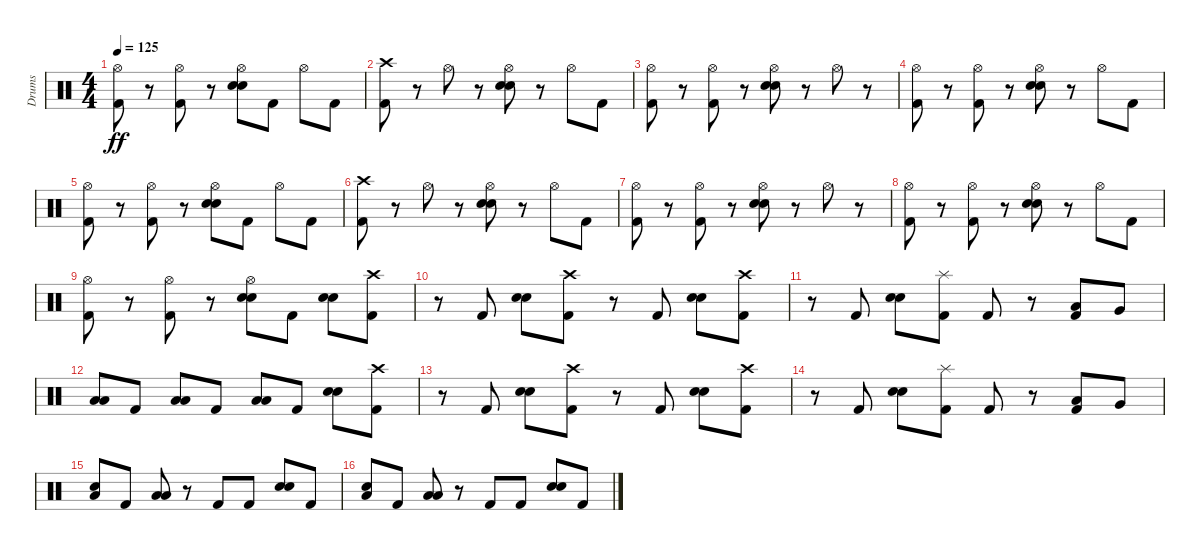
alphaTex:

\track ("Drums" "Drums") {instrument percussion}
\staff {score}
\articulation defaults
\ts (4 4)
\tempo 125
\clef neutral
\ks c
("Hi-Hat (open)" "Kick (hit) 2").8{dy ff} r.8 ("Hi-Hat (open)" "Kick (hit) 2").8 r.8 ("Hi-Hat (open)" "Electric Snare (hit)" "Electric Snare (hit)").8 "Kick (hit) 2".8 "Hi-Hat (open)".8 "Kick (hit) 2".8 |
("Crash high (hit)" "Kick (hit) 2").8 r.8 "Hi-Hat (open)".8 r.8 ("Hi-Hat (open)" "Electric Snare (hit)" "Electric Snare (hit)").8 r.8 "Hi-Hat (open)".8 "Kick (hit) 2".8 |
("Hi-Hat (open)" "Kick (hit) 2").8 r.8 ("Hi-Hat (open)" "Kick (hit) 2").8 r.8 ("Hi-Hat (open)" "Electric Snare (hit)" "Electric Snare (hit)").8 r.8 "Hi-Hat (open)".8 r.8 |
("Hi-Hat (open)" "Kick (hit) 2").8 r.8 ("Hi-Hat (open)" "Kick (hit) 2").8 r.8 ("Hi-Hat (open)" "Electric Snare (hit)" "Electric Snare (hit)").8 r.8 "Hi-Hat (open)".8 "Kick (hit) 2".8 |
("Hi-Hat (open)" "Kick (hit) 2").8 r.8 ("Hi-Hat (open)" "Kick (hit) 2").8 r.8 ("Hi-Hat (open)" "Electric Snare (hit)" "Electric Snare (hit)").8 "Kick (hit) 2".8 "Hi-Hat (open)".8 "Kick (hit) 2".8 |
("Crash high (hit)" "Kick (hit) 2").8 r.8 "Hi-Hat (open)".8 r.8 ("Hi-Hat (open)" "Electric Snare (hit)" "Electric Snare (hit)").8 r.8 "Hi-Hat (open)".8 "Kick (hit) 2".8 |
("Hi-Hat (open)" "Kick (hit) 2").8 r.8 ("Hi-Hat (open)" "Kick (hit) 2").8 r.8 ("Hi-Hat (open)" "Electric Snare (hit)" "Electric Snare (hit)").8 r.8 "Hi-Hat (open)".8 r.8 |
("Hi-Hat (open)" "Kick (hit) 2").8 r.8 ("Hi-Hat (open)" "Kick (hit) 2").8 r.8 ("Hi-Hat (open)" "Electric Snare (hit)" "Electric Snare (hit)").8 r.8 "Hi-Hat (open)".8 "Kick (hit) 2".8 |
("Hi-Hat (open)" "Kick (hit) 2").8 r.8 ("Hi-Hat (open)" "Kick (hit) 2").8 r.8 ("Hi-Hat (open)" "Electric Snare (hit)" "Electric Snare (hit)").8 "Kick (hit) 2".8 ("Electric Snare (hit)" "Electric Snare (hit)").8{bd 240} ("Crash high (hit)" "Kick (hit) 2").8 |
r.8 "Kick (hit) 2".8 ("Electric Snare (hit)" "Electric Snare (hit)").8{bd 240} ("Crash high (hit)" "Kick (hit) 2").8 r.8 "Kick (hit) 2".8 ("Electric Snare (hit)" "Electric Snare (hit)").8{bd 240} ("Crash high (hit)" "Kick (hit) 2").8 |
r.8 "Kick (hit) 2".8 ("Electric Snare (hit)" "Electric Snare (hit)").8{bd 240} ("Splash (hit)" "Kick (hit) 2").8 "Kick (hit) 2".8 r.8 ("Low Floor Tom (hit)" "Kick (hit) 2").8 "Very Low Tom (hit)".8 |
("Low Tom (hit)" "Low Tom (hit)").8 "Kick (hit) 2".8 ("Low Tom (hit)" "Low Tom (hit)").8 "Kick (hit) 2".8 ("Low Tom (hit)" "Low Tom (hit)").8 "Kick (hit) 2".8 ("Electric Snare (hit)" "Electric Snare (hit)").8{bd 240} ("Crash high (hit)" "Kick (hit) 2").8 |
r.8 "Kick (hit) 2".8 ("Electric Snare (hit)" "Electric Snare (hit)").8{bd 240} ("Crash high (hit)" "Kick (hit) 2").8 r.8 "Kick (hit) 2".8 ("Electric Snare (hit)" "Electric Snare (hit)").8{bd 240} ("Crash high (hit)" "Kick (hit) 2").8 |
r.8 "Kick (hit) 2".8 ("Electric Snare (hit)" "Electric Snare (hit)").8{bd 240} ("Splash (hit)" "Kick (hit) 2").8 "Kick (hit) 2".8 r.8 ("Low Floor Tom (hit)" "Kick (hit) 2").8 "Very Low Tom (hit)".8 |
("Electric Snare (hit)" "Low Tom (hit)").8 "Kick (hit) 2".8 ("Low Tom (hit)" "Low Tom (hit)").8 r.8 "Kick (hit) 2".8 "Kick (hit) 2".8 ("Electric Snare (hit)" "Electric Snare (hit)").8{bd 240} "Kick (hit) 2".8 |
("Electric Snare (hit)" "Low Tom (hit)").8 "Kick (hit) 2".8 ("Low Tom (hit)" "Low Tom (hit)").8 r.8 "Kick (hit) 2".8 "Kick (hit) 2".8 ("Electric Snare (hit)" "Electric Snare (hit)").8{bd 240} "Kick (hit) 2".8
